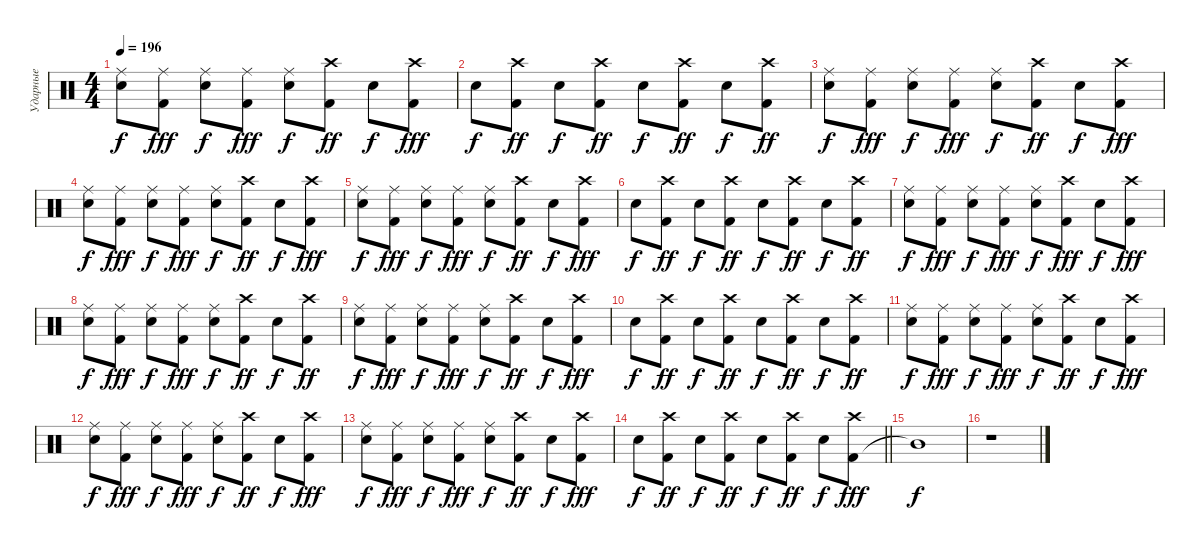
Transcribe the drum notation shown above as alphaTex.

\track ("Ударные" "Ударные") {instrument percussion}
\staff {score}
\articulation defaults
\ts (4 4)
\tempo 196
\clef neutral
\ks c
("Snare (hit) 2" "Ride (middle)").8{dy f} ("Kick (hit) 2" "Ride (middle)").8{dy fff} ("Snare (hit) 2" "Ride (middle)").8{dy f} ("Kick (hit) 2" "Ride (middle)").8{dy fff} ("Snare (hit) 2" "Ride (middle)").8{dy f} ("Kick (hit) 2" "Crash high (hit)").8{dy ff} "Snare (hit) 2".8{dy f} ("Kick (hit) 2" "Crash high (hit)").8{dy fff} |
"Snare (hit) 2".8{dy f} ("Kick (hit) 2" "Crash high (hit)").8{dy ff} "Snare (hit) 2".8{dy f} ("Kick (hit) 2" "Crash high (hit)").8{dy ff} "Snare (hit) 2".8{dy f} ("Kick (hit) 2" "Crash high (hit)").8{dy ff} "Snare (hit) 2".8{dy f} ("Kick (hit) 2" "Crash high (hit)").8{dy ff} |
("Snare (hit) 2" "Ride (middle)").8{dy f} ("Kick (hit) 2" "Ride (middle)").8{dy fff} ("Snare (hit) 2" "Ride (middle)").8{dy f} ("Kick (hit) 2" "Ride (middle)").8{dy fff} ("Snare (hit) 2" "Ride (middle)").8{dy f} ("Kick (hit) 2" "Crash high (hit)").8{dy ff} "Snare (hit) 2".8{dy f} ("Kick (hit) 2" "Crash high (hit)").8{dy fff} |
("Snare (hit) 2" "Ride (middle)").8{dy f} ("Kick (hit) 2" "Ride (middle)").8{dy fff} ("Snare (hit) 2" "Ride (middle)").8{dy f} ("Kick (hit) 2" "Ride (middle)").8{dy fff} ("Snare (hit) 2" "Ride (middle)").8{dy f} ("Kick (hit) 2" "Crash high (hit)").8{dy ff} "Snare (hit) 2".8{dy f} ("Kick (hit) 2" "Crash high (hit)").8{dy fff} |
("Snare (hit) 2" "Ride (middle)").8{dy f} ("Kick (hit) 2" "Ride (middle)").8{dy fff} ("Snare (hit) 2" "Ride (middle)").8{dy f} ("Kick (hit) 2" "Ride (middle)").8{dy fff} ("Snare (hit) 2" "Ride (middle)").8{dy f} ("Kick (hit) 2" "Crash high (hit)").8{dy ff} "Snare (hit) 2".8{dy f} ("Kick (hit) 2" "Crash high (hit)").8{dy fff} |
"Snare (hit) 2".8{dy f} ("Kick (hit) 2" "Crash high (hit)").8{dy ff} "Snare (hit) 2".8{dy f} ("Kick (hit) 2" "Crash high (hit)").8{dy ff} "Snare (hit) 2".8{dy f} ("Kick (hit) 2" "Crash high (hit)").8{dy ff} "Snare (hit) 2".8{dy f} ("Kick (hit) 2" "Crash high (hit)").8{dy ff} |
("Snare (hit) 2" "Ride (middle)").8{dy f} ("Kick (hit) 2" "Ride (middle)").8{dy fff} ("Snare (hit) 2" "Ride (middle)").8{dy f} ("Kick (hit) 2" "Ride (middle)").8{dy fff} ("Snare (hit) 2" "Ride (middle)").8{dy f} ("Kick (hit) 2" "Crash high (hit)").8{dy fff} "Snare (hit) 2".8{dy f} ("Kick (hit) 2" "Crash high (hit)").8{dy fff} |
("Snare (hit) 2" "Ride (middle)").8{dy f} ("Kick (hit) 2" "Ride (middle)").8{dy fff} ("Snare (hit) 2" "Ride (middle)").8{dy f} ("Kick (hit) 2" "Ride (middle)").8{dy fff} ("Snare (hit) 2" "Ride (middle)").8{dy f} ("Kick (hit) 2" "Crash high (hit)").8{dy ff} "Snare (hit) 2".8{dy f} ("Kick (hit) 2" "Crash high (hit)").8{dy ff} |
("Snare (hit) 2" "Ride (middle)").8{dy f} ("Kick (hit) 2" "Ride (middle)").8{dy fff} ("Snare (hit) 2" "Ride (middle)").8{dy f} ("Kick (hit) 2" "Ride (middle)").8{dy fff} ("Snare (hit) 2" "Ride (middle)").8{dy f} ("Kick (hit) 2" "Crash high (hit)").8{dy ff} "Snare (hit) 2".8{dy f} ("Kick (hit) 2" "Crash high (hit)").8{dy fff} |
"Snare (hit) 2".8{dy f} ("Kick (hit) 2" "Crash high (hit)").8{dy ff} "Snare (hit) 2".8{dy f} ("Kick (hit) 2" "Crash high (hit)").8{dy ff} "Snare (hit) 2".8{dy f} ("Kick (hit) 2" "Crash high (hit)").8{dy ff} "Snare (hit) 2".8{dy f} ("Kick (hit) 2" "Crash high (hit)").8{dy ff} |
("Snare (hit) 2" "Ride (middle)").8{dy f} ("Kick (hit) 2" "Ride (middle)").8{dy fff} ("Snare (hit) 2" "Ride (middle)").8{dy f} ("Kick (hit) 2" "Ride (middle)").8{dy fff} ("Snare (hit) 2" "Ride (middle)").8{dy f} ("Kick (hit) 2" "Crash high (hit)").8{dy ff} "Snare (hit) 2".8{dy f} ("Kick (hit) 2" "Crash high (hit)").8{dy fff} |
("Snare (hit) 2" "Ride (middle)").8{dy f} ("Kick (hit) 2" "Ride (middle)").8{dy fff} ("Snare (hit) 2" "Ride (middle)").8{dy f} ("Kick (hit) 2" "Ride (middle)").8{dy fff} ("Snare (hit) 2" "Ride (middle)").8{dy f} ("Kick (hit) 2" "Crash high (hit)").8{dy ff} "Snare (hit) 2".8{dy f} ("Kick (hit) 2" "Crash high (hit)").8{dy fff} |
("Snare (hit) 2" "Ride (middle)").8{dy f} ("Kick (hit) 2" "Ride (middle)").8{dy fff} ("Snare (hit) 2" "Ride (middle)").8{dy f} ("Kick (hit) 2" "Ride (middle)").8{dy fff} ("Snare (hit) 2" "Ride (middle)").8{dy f} ("Kick (hit) 2" "Crash high (hit)").8{dy ff} "Snare (hit) 2".8{dy f} ("Kick (hit) 2" "Crash high (hit)").8{dy fff} |
\barLineRight lightlight "Snare (hit) 2".8{dy f}
("Kick (hit) 2" "Crash high (hit)").8{dy ff} "Snare (hit) 2".8{dy f} ("Kick (hit) 2" "Crash high (hit)").8{dy ff} "Snare (hit) 2".8{dy f} ("Kick (hit) 2" "Crash high (hit)").8{dy ff} "Snare (hit) 2".8{dy f} ("Kick (hit) 2" "Crash high (hit)").8{dy fff} |
"Mid Tom (hit)"{t}.1{dy f} |
r.1
